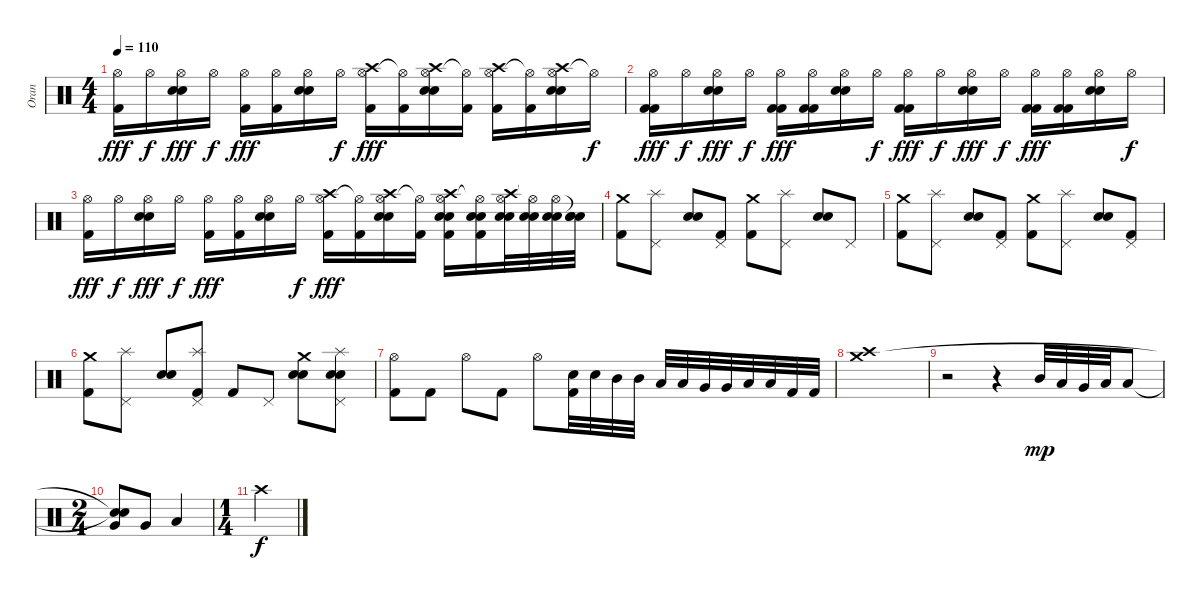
\track ("Oran" "Oran") {instrument percussion}
\staff {score}
\articulation defaults
\ts (4 4)
\tempo 110
\clef neutral
\ks c
("Hi-Hat (open)" "Kick (hit) 2").16{dy fff} "Hi-Hat (open)".16{dy f} ("Hi-Hat (open)" "Snare (hit) 2" "Electric Snare (hit)").16{dy fff} "Hi-Hat (open)".16{dy f} ("Hi-Hat (open)" "Kick (hit) 2").16{dy fff} ("Hi-Hat (open)" "Kick (hit) 2").16 ("Hi-Hat (open)" "Snare (hit) 2" "Electric Snare (hit)").16 "Hi-Hat (open)".16{dy f} ("Hi-Hat (open)" "Crash high (hit)" "Kick (hit) 2").16{dy fff} ("Hi-Hat (open)"{t} "Kick (hit) 2").16 ("Hi-Hat (open)" "Snare (hit) 2" "Electric Snare (hit)" "Crash high (hit)").16 ("Hi-Hat (open)"{t} "Kick (hit) 2").16 ("Hi-Hat (open)" "Crash high (hit)" "Kick (hit) 2").16 ("Hi-Hat (open)"{t} "Kick (hit) 2").16 ("Hi-Hat (open)" "Electric Snare (hit)" "Snare (hit) 2" "Crash high (hit)").16 "Hi-Hat (open)"{t}.16{dy f} |
("Hi-Hat (open)" "Kick (hit) 2" "Kick (hit) 2").16{dy fff} "Hi-Hat (open)".16{dy f} ("Hi-Hat (open)" "Snare (hit) 2" "Electric Snare (hit)").16{dy fff} "Hi-Hat (open)".16{dy f} ("Hi-Hat (open)" "Kick (hit) 2" "Kick (hit) 2").16{dy fff} ("Hi-Hat (open)" "Kick (hit) 2" "Kick (hit) 2").16 ("Hi-Hat (open)" "Snare (hit) 2" "Electric Snare (hit)").16 "Hi-Hat (open)".16{dy f} ("Hi-Hat (open)" "Kick (hit) 2" "Kick (hit) 2").16{dy fff} "Hi-Hat (open)".16{dy f} ("Hi-Hat (open)" "Snare (hit) 2" "Electric Snare (hit)").16{dy fff} "Hi-Hat (open)".16{dy f} ("Hi-Hat (open)" "Kick (hit) 2" "Kick (hit) 2").16{dy fff} ("Hi-Hat (open)" "Kick (hit) 2" "Kick (hit) 2").16 ("Hi-Hat (open)" "Snare (hit) 2" "Electric Snare (hit)").16 "Hi-Hat (open)".16{dy f} |
("Hi-Hat (open)" "Kick (hit) 2").16{dy fff} "Hi-Hat (open)".16{dy f} ("Hi-Hat (open)" "Snare (hit) 2" "Electric Snare (hit)").16{dy fff} "Hi-Hat (open)".16{dy f} ("Hi-Hat (open)" "Kick (hit) 2").16{dy fff} ("Hi-Hat (open)" "Kick (hit) 2").16 ("Hi-Hat (open)" "Snare (hit) 2" "Electric Snare (hit)").16 "Hi-Hat (open)".16{dy f} ("Hi-Hat (open)" "Crash high (hit)" "Kick (hit) 2").16{dy fff} ("Hi-Hat (open)"{t} "Kick (hit) 2").16 ("Hi-Hat (open)" "Snare (hit) 2" "Electric Snare (hit)" "Crash high (hit)").16 ("Hi-Hat (open)"{t} "Kick (hit) 2").16 ("Hi-Hat (open)" "Crash high (hit)" "Electric Snare (hit)" "Kick (hit) 2" "Snare (hit) 2").16 ("Hi-Hat (open)"{t} "Snare (hit) 2" "Electric Snare (hit)" "Kick (hit) 2").16 ("Hi-Hat (open)" "Electric Snare (hit)" "Snare (hit) 2" "Crash high (hit)").32 ("Hi-Hat (open)"{t} "Snare (hit) 2" "Electric Snare (hit)").32 ("Hi-Hat (open)" "Snare (hit) 2" "Electric Snare (hit)").32 ("Snare (hit)"{t} "Snare (hit) 2" "Electric Snare (hit)").32 |
("Crash medium (hit)" "Kick (hit) 2").8 ("Splash (hit)" "Pedal Hi-Hat (hit)").8 ("Snare (hit) 2" "Electric Snare (hit)").8 ("Pedal Hi-Hat (hit)" "Kick (hit) 2").8 ("Crash medium (hit)" "Kick (hit) 2").8 ("Splash (hit)" "Pedal Hi-Hat (hit)").8 ("Snare (hit) 2" "Electric Snare (hit)").8 "Pedal Hi-Hat (hit)".8 |
("Crash medium (hit)" "Kick (hit) 2").8 ("Splash (hit)" "Pedal Hi-Hat (hit)").8 ("Snare (hit) 2" "Electric Snare (hit)").8 ("Pedal Hi-Hat (hit)" "Kick (hit) 2").8 ("Crash medium (hit)" "Kick (hit) 2").8 ("Splash (hit)" "Pedal Hi-Hat (hit)").8 ("Electric Snare (hit)" "Snare (hit) 2").8 ("Pedal Hi-Hat (hit)" "Kick (hit) 2").8 |
("Crash medium (hit)" "Kick (hit) 2").8 ("Splash (hit)" "Pedal Hi-Hat (hit)").8 ("Snare (hit) 2" "Electric Snare (hit)").8 ("Splash (hit)" "Pedal Hi-Hat (hit)" "Kick (hit) 2").8 "Kick (hit) 2".8 "Pedal Hi-Hat (hit)".8 ("Crash medium (hit)" "Snare (hit) 2" "Electric Snare (hit)").8 ("Splash (hit)" "Pedal Hi-Hat (hit)" "Snare (hit) 2" "Electric Snare (hit)").8 |
("Hi-Hat (open)" "Kick (hit) 2").8 "Kick (hit) 2".8 "Hi-Hat (open)".8 "Kick (hit) 2".8 "Hi-Hat (open)".8 ("Electric Snare (hit)" "Kick (hit) 2").32 "Electric Snare (hit)".32 "Mid Tom (hit)".32 "Mid Tom (hit)".32 "Low Tom (hit)".32 "Low Tom (hit)".32 "Very Low Tom (hit)".32 "Very Low Tom (hit)".32 "Low Floor Tom (hit)".32 "Low Floor Tom (hit)".32 "Kick (hit) 2".32 "Kick (hit) 2".32 |
("Crash high (hit)" "Crash medium (hit)").1 |
r.2 r.4 "Mid Tom (hit)".32{dy mp} "Low Tom (hit)".32 "Very Low Tom (hit)".32 "Low Floor Tom (hit)".32 "Low Tom (hit)".8 |
\ts (2 4)
("Snare (hit)"{t} "Snare (hit)"{t} "Very Low Tom (hit)").8 "Very Low Tom (hit)".8 "Low Floor Tom (hit)".4 |
\ts (1 4)
"Crash high (hit)".4{dy f}
